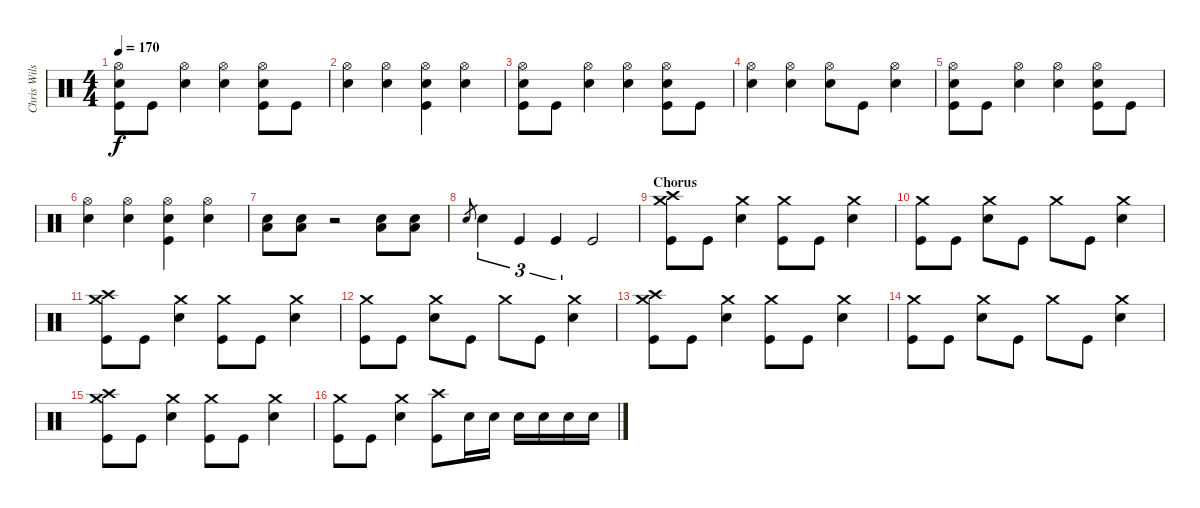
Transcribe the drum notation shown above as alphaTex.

\track ("Chris Wilson" "Chris Wils") {instrument percussion}
\staff {score}
\articulation defaults
\ts (4 4)
\tempo 170
\clef neutral
\ks c
("Hi-Hat (open)" "Electric Snare (hit)" "Kick (hit)").8{dy f} "Kick (hit)".8 ("Hi-Hat (open)" "Electric Snare (hit)").4 ("Hi-Hat (open)" "Electric Snare (hit)").4 ("Hi-Hat (open)" "Electric Snare (hit)" "Kick (hit)").8 "Kick (hit)".8 |
("Hi-Hat (open)" "Electric Snare (hit)").4 ("Hi-Hat (open)" "Electric Snare (hit)").4 ("Hi-Hat (open)" "Electric Snare (hit)" "Kick (hit)").4 ("Hi-Hat (open)" "Electric Snare (hit)").4 |
("Hi-Hat (open)" "Electric Snare (hit)" "Kick (hit)").8 "Kick (hit)".8 ("Hi-Hat (open)" "Electric Snare (hit)").4 ("Hi-Hat (open)" "Electric Snare (hit)").4 ("Hi-Hat (open)" "Electric Snare (hit)" "Kick (hit)").8 "Kick (hit)".8 |
("Hi-Hat (open)" "Electric Snare (hit)").4 ("Hi-Hat (open)" "Electric Snare (hit)").4 ("Hi-Hat (open)" "Electric Snare (hit)").8 "Kick (hit)".8 ("Hi-Hat (open)" "Electric Snare (hit)").4 |
("Hi-Hat (open)" "Electric Snare (hit)" "Kick (hit)").8 "Kick (hit)".8 ("Hi-Hat (open)" "Electric Snare (hit)").4 ("Hi-Hat (open)" "Electric Snare (hit)").4 ("Hi-Hat (open)" "Electric Snare (hit)" "Kick (hit)").8 "Kick (hit)".8 |
("Hi-Hat (open)" "Electric Snare (hit)").4 ("Hi-Hat (open)" "Electric Snare (hit)").4 ("Hi-Hat (open)" "Electric Snare (hit)" "Kick (hit)").4 ("Hi-Hat (open)" "Electric Snare (hit)").4 |
("Low Tom (hit)" "Electric Snare (hit)").8 ("Low Tom (hit)" "Electric Snare (hit)").8 r.2 ("Low Tom (hit)" "Electric Snare (hit)").8 ("Low Tom (hit)" "Electric Snare (hit)").8 |
"Electric Snare (hit)".8{gr} "Electric Snare (hit)".4{tu (3 2)} "Kick (hit)".4{tu (3 2)} "Kick (hit)".4{tu (3 2)} "Kick (hit)".2 |
\section ("" "Chorus")
("Crash high (hit)" "Crash medium (hit)" "Kick (hit)").8 "Kick (hit)".8 ("Crash medium (hit)" "Electric Snare (hit)").4 ("Crash medium (hit)" "Kick (hit)").8 "Kick (hit)".8 ("Crash medium (hit)" "Electric Snare (hit)").4 |
("Crash medium (hit)" "Kick (hit)").8 "Kick (hit)".8 ("Crash medium (hit)" "Electric Snare (hit)").8 "Kick (hit)".8 "Crash medium (hit)".8 "Kick (hit)".8 ("Crash medium (hit)" "Electric Snare (hit)").4 |
("Crash high (hit)" "Crash medium (hit)" "Kick (hit)").8 "Kick (hit)".8 ("Crash medium (hit)" "Electric Snare (hit)").4 ("Crash medium (hit)" "Kick (hit)").8 "Kick (hit)".8 ("Crash medium (hit)" "Electric Snare (hit)").4 |
("Crash medium (hit)" "Kick (hit)").8 "Kick (hit)".8 ("Crash medium (hit)" "Electric Snare (hit)").8 "Kick (hit)".8 "Crash medium (hit)".8 "Kick (hit)".8 ("Crash medium (hit)" "Electric Snare (hit)").4 |
("Crash high (hit)" "Crash medium (hit)" "Kick (hit)").8 "Kick (hit)".8 ("Crash medium (hit)" "Electric Snare (hit)").4 ("Crash medium (hit)" "Kick (hit)").8 "Kick (hit)".8 ("Crash medium (hit)" "Electric Snare (hit)").4 |
("Crash medium (hit)" "Kick (hit)").8 "Kick (hit)".8 ("Crash medium (hit)" "Electric Snare (hit)").8 "Kick (hit)".8 "Crash medium (hit)".8 "Kick (hit)".8 ("Crash medium (hit)" "Electric Snare (hit)").4 |
("Crash high (hit)" "Crash medium (hit)" "Kick (hit)").8 "Kick (hit)".8 ("Crash medium (hit)" "Electric Snare (hit)").4 ("Crash medium (hit)" "Kick (hit)").8 "Kick (hit)".8 ("Crash medium (hit)" "Electric Snare (hit)").4 |
("Crash medium (hit)" "Kick (hit)").8 "Kick (hit)".8 ("Crash medium (hit)" "Electric Snare (hit)").4 ("Crash high (hit)" "Kick (hit)").8 "Electric Snare (hit)".16 "Electric Snare (hit)".16 "Electric Snare (hit)".16 "Electric Snare (hit)".16 "Electric Snare (hit)".16 "Electric Snare (hit)".16
